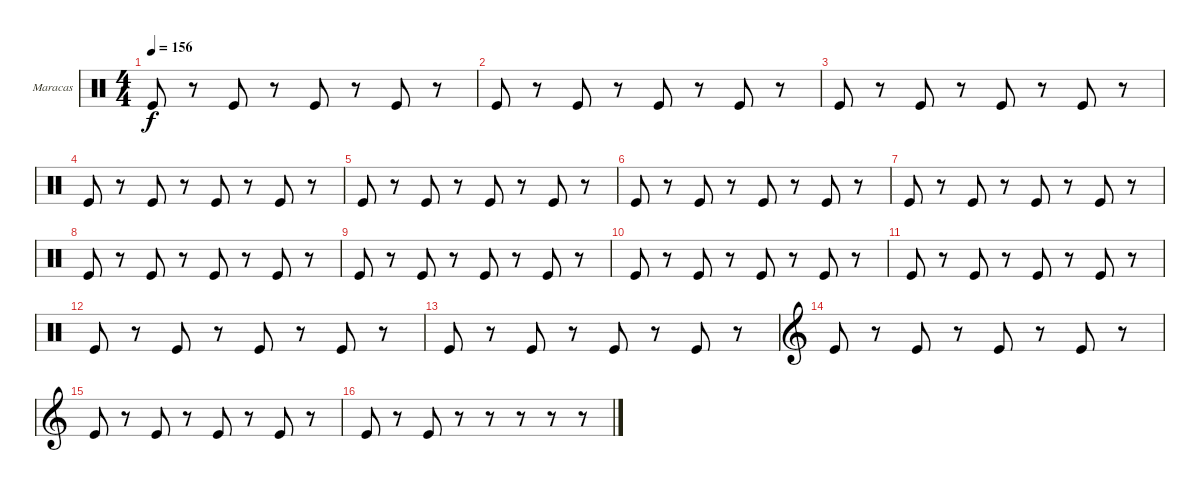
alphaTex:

\defaultSystemsLayout 4
\bracketExtendMode groupsimilarinstruments
\firstSystemTrackNameOrientation horizontal
\otherSystemsTrackNameOrientation horizontal
\track ("Maracas" "Maracas") {instrument percussion}
\staff {score}
\articulation defaults
\ts (4 4)
\tempo 156
\clef neutral
\scale
0.333333
\ks c "Kick (hit)".8{dy f}
r.8 "Kick (hit)".8 r.8 "Kick (hit)".8 r.8 "Kick (hit)".8 r.8 |
\scale
0.333333 "Kick (hit)".8 r.8 "Kick (hit)".8 r.8 "Kick (hit)".8 r.8 "Kick (hit)".8 r.8 |
\scale
0.333333 "Kick (hit)".8 r.8 "Kick (hit)".8 r.8 "Kick (hit)".8 r.8 "Kick (hit)".8 r.8 |
\scale
0.333333 "Kick (hit)".8 r.8 "Kick (hit)".8 r.8 "Kick (hit)".8 r.8 "Kick (hit)".8 r.8 |
\scale
0.333333 "Kick (hit)".8 r.8 "Kick (hit)".8 r.8 "Kick (hit)".8 r.8 "Kick (hit)".8 r.8 |
\scale
0.333333 "Kick (hit)".8 r.8 "Kick (hit)".8 r.8 "Kick (hit)".8 r.8 "Kick (hit)".8 r.8 |
\scale
0.333333 "Kick (hit)".8 r.8 "Kick (hit)".8 r.8 "Kick (hit)".8 r.8 "Kick (hit)".8 r.8 |
\scale
0.333333 "Kick (hit)".8 r.8 "Kick (hit)".8 r.8 "Kick (hit)".8 r.8 "Kick (hit)".8 r.8 |
\scale
0.333333 "Kick (hit)".8 r.8 "Kick (hit)".8 r.8 "Kick (hit)".8 r.8 "Kick (hit)".8 r.8 |
\scale
0.333333 "Kick (hit)".8 r.8 "Kick (hit)".8 r.8 "Kick (hit)".8 r.8 "Kick (hit)".8 r.8 |
\scale
0.333333 "Kick (hit)".8 r.8 "Kick (hit)".8 r.8 "Kick (hit)".8 r.8 "Kick (hit)".8 r.8 |
\scale
0.333333 "Kick (hit)".8 r.8 "Kick (hit)".8 r.8 "Kick (hit)".8 r.8 "Kick (hit)".8 r.8 |
\scale
0.333333 "Kick (hit)".8 r.8 "Kick (hit)".8 r.8 "Kick (hit)".8 r.8 "Kick (hit)".8 r.8 |
\clef g2
\scale
0.333333 "Kick (hit)".8 r.8 "Kick (hit)".8 r.8 "Kick (hit)".8 r.8 "Kick (hit)".8 r.8 |
\scale
0.333333 "Kick (hit)".8 r.8 "Kick (hit)".8 r.8 "Kick (hit)".8 r.8 "Kick (hit)".8 r.8 |
\scale
0.333333 "Kick (hit)".8 r.8 "Kick (hit)".8 r.8 r.8 r.8 r.8 r.8
